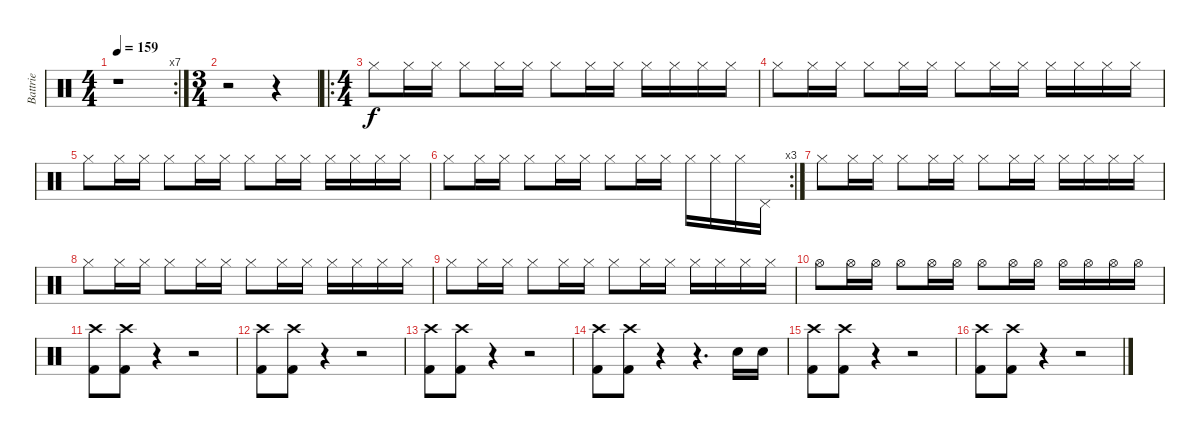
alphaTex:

\track ("Battrie" "Battrie") {instrument percussion}
\staff {score}
\articulation defaults
\rc 7
\ts (4 4)
\tempo 159
\clef neutral
\ks c
r.1{dy f} |
\ts (3 4)
r.2 r.4 |
\ro
\ts (4 4)
"Hi-Hat (closed)".8 "Hi-Hat (closed)".16 "Hi-Hat (closed)".16 "Hi-Hat (closed)".8 "Hi-Hat (closed)".16 "Hi-Hat (closed)".16 "Hi-Hat (closed)".8 "Hi-Hat (closed)".16 "Hi-Hat (closed)".16 "Hi-Hat (closed)".16 "Hi-Hat (closed)".16 "Hi-Hat (closed)".16 "Hi-Hat (closed)".16 |
"Hi-Hat (closed)".8 "Hi-Hat (closed)".16 "Hi-Hat (closed)".16 "Hi-Hat (closed)".8 "Hi-Hat (closed)".16 "Hi-Hat (closed)".16 "Hi-Hat (closed)".8 "Hi-Hat (closed)".16 "Hi-Hat (closed)".16 "Hi-Hat (closed)".16 "Hi-Hat (closed)".16 "Hi-Hat (closed)".16 "Hi-Hat (closed)".16 |
"Hi-Hat (closed)".8 "Hi-Hat (closed)".16 "Hi-Hat (closed)".16 "Hi-Hat (closed)".8 "Hi-Hat (closed)".16 "Hi-Hat (closed)".16 "Hi-Hat (closed)".8 "Hi-Hat (closed)".16 "Hi-Hat (closed)".16 "Hi-Hat (closed)".16 "Hi-Hat (closed)".16 "Hi-Hat (closed)".16 "Hi-Hat (closed)".16 |
\rc 3 "Hi-Hat (closed)".8 "Hi-Hat (closed)".16 "Hi-Hat (closed)".16 "Hi-Hat (closed)".8 "Hi-Hat (closed)".16 "Hi-Hat (closed)".16 "Hi-Hat (closed)".8 "Hi-Hat (closed)".16 "Hi-Hat (closed)".16 "Hi-Hat (closed)".16 "Hi-Hat (closed)".16 "Hi-Hat (closed)".16 "Pedal Hi-Hat (hit)".16
|
"Hi-Hat (closed)".8 "Hi-Hat (closed)".16 "Hi-Hat (closed)".16 "Hi-Hat (closed)".8 "Hi-Hat (closed)".16 "Hi-Hat (closed)".16 "Hi-Hat (closed)".8 "Hi-Hat (closed)".16 "Hi-Hat (closed)".16 "Hi-Hat (closed)".16 "Hi-Hat (closed)".16 "Hi-Hat (closed)".16 "Hi-Hat (closed)".16 |
"Hi-Hat (closed)".8 "Hi-Hat (closed)".16 "Hi-Hat (closed)".16 "Hi-Hat (closed)".8 "Hi-Hat (closed)".16 "Hi-Hat (closed)".16 "Hi-Hat (closed)".8 "Hi-Hat (closed)".16 "Hi-Hat (closed)".16 "Hi-Hat (closed)".16 "Hi-Hat (closed)".16 "Hi-Hat (closed)".16 "Hi-Hat (closed)".16 |
"Hi-Hat (closed)".8 "Hi-Hat (closed)".16 "Hi-Hat (closed)".16 "Hi-Hat (closed)".8 "Hi-Hat (closed)".16 "Hi-Hat (closed)".16 "Hi-Hat (closed)".8 "Hi-Hat (closed)".16 "Hi-Hat (closed)".16 "Hi-Hat (closed)".16 "Hi-Hat (closed)".16 "Hi-Hat (closed)".16 "Hi-Hat (closed)".16 |
"Hi-Hat (open)".8 "Hi-Hat (open)".16 "Hi-Hat (open)".16 "Hi-Hat (open)".8 "Hi-Hat (open)".16 "Hi-Hat (open)".16 "Hi-Hat (open)".8 "Hi-Hat (open)".16 "Hi-Hat (open)".16 "Hi-Hat (open)".16 "Hi-Hat (open)".16 "Hi-Hat (open)".16 "Hi-Hat (open)".16 |
("Crash high (hit)" "Kick (hit) 2").8 ("Crash high (hit)" "Kick (hit) 2").8 r.4 r.2 |
("Crash high (hit)" "Kick (hit) 2").8 ("Crash high (hit)" "Kick (hit) 2").8 r.4 r.2 |
("Crash high (hit)" "Kick (hit) 2").8 ("Crash high (hit)" "Kick (hit) 2").8 r.4 r.2 |
("Crash high (hit)" "Kick (hit) 2").8 ("Crash high (hit)" "Kick (hit) 2").8 r.4 r.4{d} "Snare (hit) 2".16 "Snare (hit) 2".16 |
("Crash high (hit)" "Kick (hit) 2").8 ("Crash high (hit)" "Kick (hit) 2").8 r.4 r.2 |
("Crash high (hit)" "Kick (hit) 2").8 ("Crash high (hit)" "Kick (hit) 2").8 r.4 r.2
